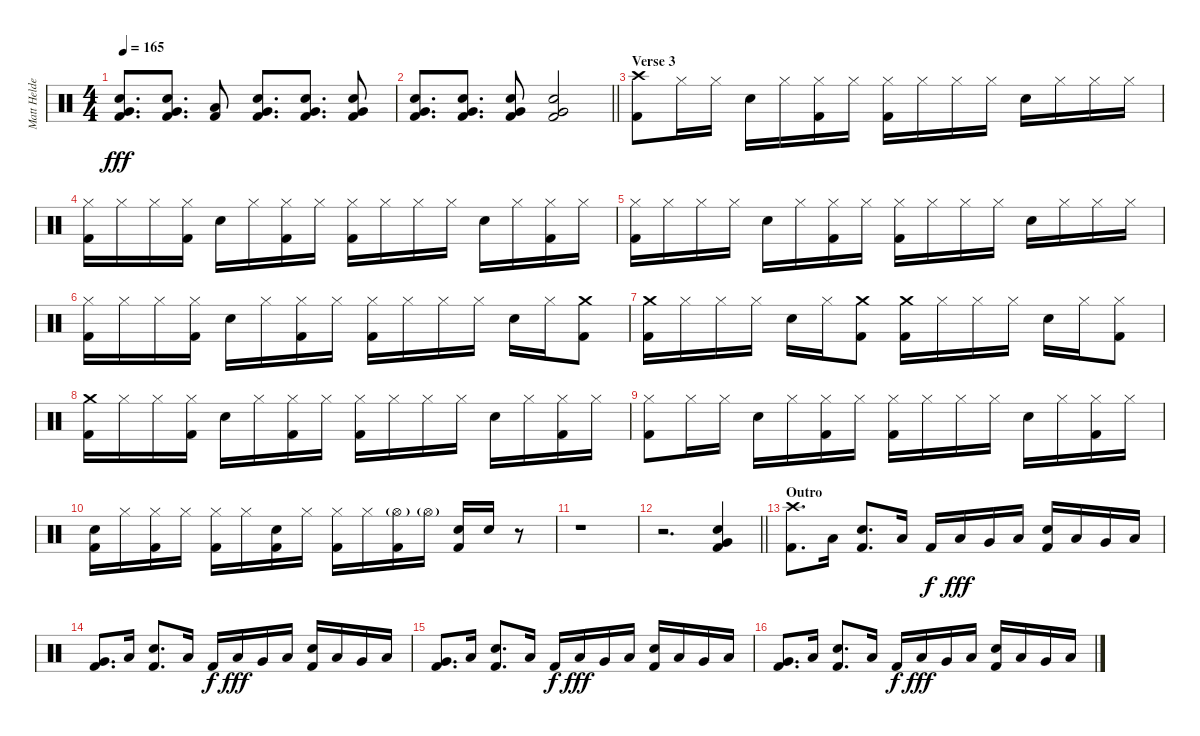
\track ("Matt Helders (Drums)" "Matt Helde") {instrument percussion}
\staff {score}
\articulation defaults
\ts (4 4)
\tempo 165
\clef neutral
\ks c
("Very Low Tom (hit)" "Electric Snare (hit)" "Kick (hit) 2").8{d dy fff} ("Very Low Tom (hit)" "Electric Snare (hit)" "Kick (hit) 2").8{d} ("Low Tom (hit)" "Kick (hit) 2").8 ("Very Low Tom (hit)" "Electric Snare (hit)" "Kick (hit) 2").8{d} ("Very Low Tom (hit)" "Electric Snare (hit)" "Kick (hit) 2").8{d} ("Very Low Tom (hit)" "Electric Snare (hit)" "Kick (hit) 2").8 |
\barLineRight lightlight
("Very Low Tom (hit)" "Electric Snare (hit)" "Kick (hit) 2").8{d} ("Very Low Tom (hit)" "Electric Snare (hit)" "Kick (hit) 2").8{d} ("Very Low Tom (hit)" "Electric Snare (hit)" "Kick (hit) 2").8 ("Very Low Tom (hit)" "Electric Snare (hit)" "Kick (hit) 2").2 |
\section ("" "Verse 3")
("Crash high (hit)" "Kick (hit) 2").8 "Hi-Hat (closed)".16 "Hi-Hat (closed)".16 "Electric Snare (hit)".16 "Hi-Hat (closed)".16 ("Hi-Hat (closed)" "Kick (hit) 2").16 "Hi-Hat (closed)".16 ("Hi-Hat (closed)" "Kick (hit) 2").16 "Hi-Hat (closed)".16 "Hi-Hat (closed)".16 "Hi-Hat (closed)".16 "Electric Snare (hit)".16 "Hi-Hat (closed)".16 "Hi-Hat (closed)".16 "Hi-Hat (closed)".16 |
("Hi-Hat (closed)" "Kick (hit) 2").16 "Hi-Hat (closed)".16 "Hi-Hat (closed)".16 ("Hi-Hat (closed)" "Kick (hit) 2").16 "Electric Snare (hit)".16 "Hi-Hat (closed)".16 ("Hi-Hat (closed)" "Kick (hit) 2").16 "Hi-Hat (closed)".16 ("Hi-Hat (closed)" "Kick (hit) 2").16 "Hi-Hat (closed)".16 "Hi-Hat (closed)".16 "Hi-Hat (closed)".16 "Electric Snare (hit)".16 "Hi-Hat (closed)".16 ("Hi-Hat (closed)" "Kick (hit) 2").16 "Hi-Hat (closed)".16 |
("Hi-Hat (closed)" "Kick (hit) 2").16 "Hi-Hat (closed)".16 "Hi-Hat (closed)".16 "Hi-Hat (closed)".16 "Electric Snare (hit)".16 "Hi-Hat (closed)".16 ("Hi-Hat (closed)" "Kick (hit) 2").16 "Hi-Hat (closed)".16 ("Hi-Hat (closed)" "Kick (hit) 2").16 "Hi-Hat (closed)".16 "Hi-Hat (closed)".16 "Hi-Hat (closed)".16 "Electric Snare (hit)".16 "Hi-Hat (closed)".16 "Hi-Hat (closed)".16 "Hi-Hat (closed)".16 |
("Hi-Hat (closed)" "Kick (hit) 2").16 "Hi-Hat (closed)".16 "Hi-Hat (closed)".16 ("Hi-Hat (closed)" "Kick (hit) 2").16 "Electric Snare (hit)".16 "Hi-Hat (closed)".16 ("Hi-Hat (closed)" "Kick (hit) 2").16 "Hi-Hat (closed)".16 ("Hi-Hat (closed)" "Kick (hit) 2").16 "Hi-Hat (closed)".16 "Hi-Hat (closed)".16 "Hi-Hat (closed)".16 "Electric Snare (hit)".16 "Hi-Hat (closed)".16 ("Crash medium (hit)" "Kick (hit) 2").8 |
("Crash medium (hit)" "Kick (hit) 2").16 "Hi-Hat (closed)".16 "Hi-Hat (closed)".16 "Hi-Hat (closed)".16 "Electric Snare (hit)".16 "Hi-Hat (closed)".16 ("Crash medium (hit)" "Kick (hit) 2").8 ("Crash medium (hit)" "Kick (hit) 2").16 "Hi-Hat (closed)".16 "Hi-Hat (closed)".16 "Hi-Hat (closed)".16 "Electric Snare (hit)".16 "Hi-Hat (closed)".16 ("Hi-Hat (closed)" "Kick (hit) 2").8 |
("Crash medium (hit)" "Kick (hit) 2").16 "Hi-Hat (closed)".16 "Hi-Hat (closed)".16 ("Hi-Hat (closed)" "Kick (hit) 2").16 "Electric Snare (hit)".16 "Hi-Hat (closed)".16 ("Hi-Hat (closed)" "Kick (hit) 2").16 "Hi-Hat (closed)".16 ("Hi-Hat (closed)" "Kick (hit) 2").16 "Hi-Hat (closed)".16 "Hi-Hat (closed)".16 "Hi-Hat (closed)".16 "Electric Snare (hit)".16 "Hi-Hat (closed)".16 ("Hi-Hat (closed)" "Kick (hit) 2").16 "Hi-Hat (closed)".16 |
("Hi-Hat (closed)" "Kick (hit) 2").8 "Hi-Hat (closed)".16 "Hi-Hat (closed)".16 "Electric Snare (hit)".16 "Hi-Hat (closed)".16 ("Hi-Hat (closed)" "Kick (hit) 2").16 "Hi-Hat (closed)".16 ("Hi-Hat (closed)" "Kick (hit) 2").16 "Hi-Hat (closed)".16 "Hi-Hat (closed)".16 "Hi-Hat (closed)".16 "Electric Snare (hit)".16 "Hi-Hat (closed)".16 ("Hi-Hat (closed)" "Kick (hit) 2").16 "Hi-Hat (closed)".16 |
("Electric Snare (hit)" "Kick (hit) 2").16 "Hi-Hat (closed)".16 ("Hi-Hat (closed)" "Kick (hit) 2").16 "Hi-Hat (closed)".16 ("Hi-Hat (closed)" "Kick (hit) 2").16 "Hi-Hat (closed)".16 ("Electric Snare (hit)" "Kick (hit) 2").16 "Hi-Hat (closed)".16 ("Hi-Hat (closed)" "Kick (hit) 2").16 "Hi-Hat (closed)".16 ("Hi-Hat (open)"{g} "Kick (hit) 2").16 "Hi-Hat (open)"{g}.16 ("Electric Snare (hit)" "Kick (hit) 2").16 "Electric Snare (hit)".16 r.8 |
r.1 |
\barLineRight lightlight
r.2{d} ("Very Low Tom (hit)" "Electric Snare (hit)" "Kick (hit) 2").4 |
\section ("" "Outro")
("Crash high (hit)" "Kick (hit) 2").8{d} "Low Tom (hit)".16 ("Electric Snare (hit)" "Kick (hit) 2").8{d} "Low Tom (hit)".16 "Kick (hit) 2".16{dy f} "Low Tom (hit)".16{dy fff} "Very Low Tom (hit)".16 "Low Tom (hit)".16 ("Electric Snare (hit)" "Kick (hit) 2").16 "Low Tom (hit)".16 "Very Low Tom (hit)".16 "Low Tom (hit)".16 |
("Very Low Tom (hit)" "Kick (hit) 2").8{d} "Low Tom (hit)".16 ("Electric Snare (hit)" "Kick (hit) 2").8{d} "Low Tom (hit)".16 "Kick (hit) 2".16{dy f} "Low Tom (hit)".16{dy fff} "Very Low Tom (hit)".16 "Low Tom (hit)".16 ("Electric Snare (hit)" "Kick (hit) 2").16 "Low Tom (hit)".16 "Very Low Tom (hit)".16 "Low Tom (hit)".16 |
("Very Low Tom (hit)" "Kick (hit) 2").8{d} "Low Tom (hit)".16 ("Electric Snare (hit)" "Kick (hit) 2").8{d} "Low Tom (hit)".16 "Kick (hit) 2".16{dy f} "Low Tom (hit)".16{dy fff} "Very Low Tom (hit)".16 "Low Tom (hit)".16 ("Electric Snare (hit)" "Kick (hit) 2").16 "Low Tom (hit)".16 "Very Low Tom (hit)".16 "Low Tom (hit)".16 |
("Very Low Tom (hit)" "Kick (hit) 2").8{d} "Low Tom (hit)".16 ("Electric Snare (hit)" "Kick (hit) 2").8{d} "Low Tom (hit)".16 "Kick (hit) 2".16{dy f} "Low Tom (hit)".16{dy fff} "Very Low Tom (hit)".16 "Low Tom (hit)".16 ("Electric Snare (hit)" "Kick (hit) 2").16 "Low Tom (hit)".16 "Very Low Tom (hit)".16 "Low Tom (hit)".16
